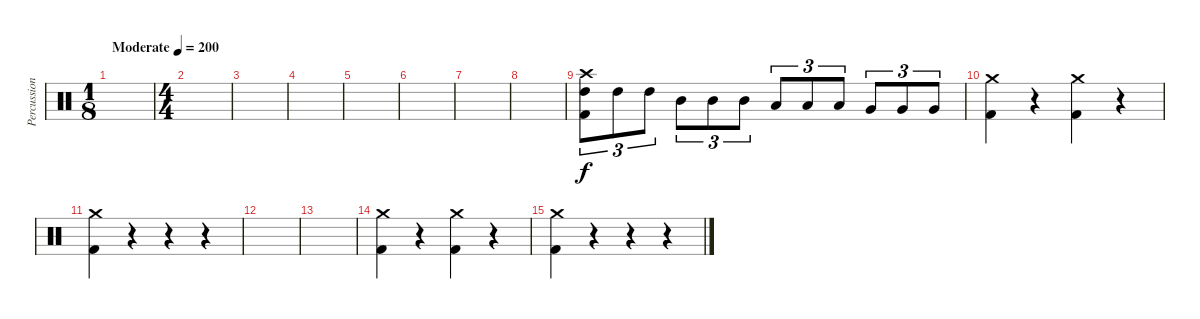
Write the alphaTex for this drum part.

\track ("Percussion" "Percussion") {instrument percussion}
\staff {score}
\articulation defaults
\ts (1 8)
\tempo (200 "Moderate")
\clef neutral
\ks c
|
\ts (4 4)
|
|
|
|
|
|
|
("Crash high (hit)" "High Tom (hit)" "Kick (hit) 2").8{tu (3 2)} "High Tom (hit)".8{tu (3 2)} "High Tom (hit)".8{tu (3 2)} "Mid Tom (hit)".8{tu (3 2)} "Mid Tom (hit)".8{tu (3 2)} "Mid Tom (hit)".8{tu (3 2)} "Low Tom (hit)".8{tu (3 2)} "Low Tom (hit)".8{tu (3 2)} "Low Tom (hit)".8{tu (3 2)} "Very Low Tom (hit)".8{tu (3 2)} "Very Low Tom (hit)".8{tu (3 2)} "Very Low Tom (hit)".8{tu (3 2)} |
("Crash medium (hit)" "Kick (hit) 2").4 r.4 ("Crash medium (hit)" "Kick (hit) 2").4 r.4 |
("Crash medium (hit)" "Kick (hit) 2").4 r.4 r.4 r.4 |
|
|
("Crash medium (hit)" "Kick (hit) 2").4 r.4 ("Crash medium (hit)" "Kick (hit) 2").4 r.4 |
("Crash medium (hit)" "Kick (hit) 2").4 r.4{volume 0} r.4 r.4
